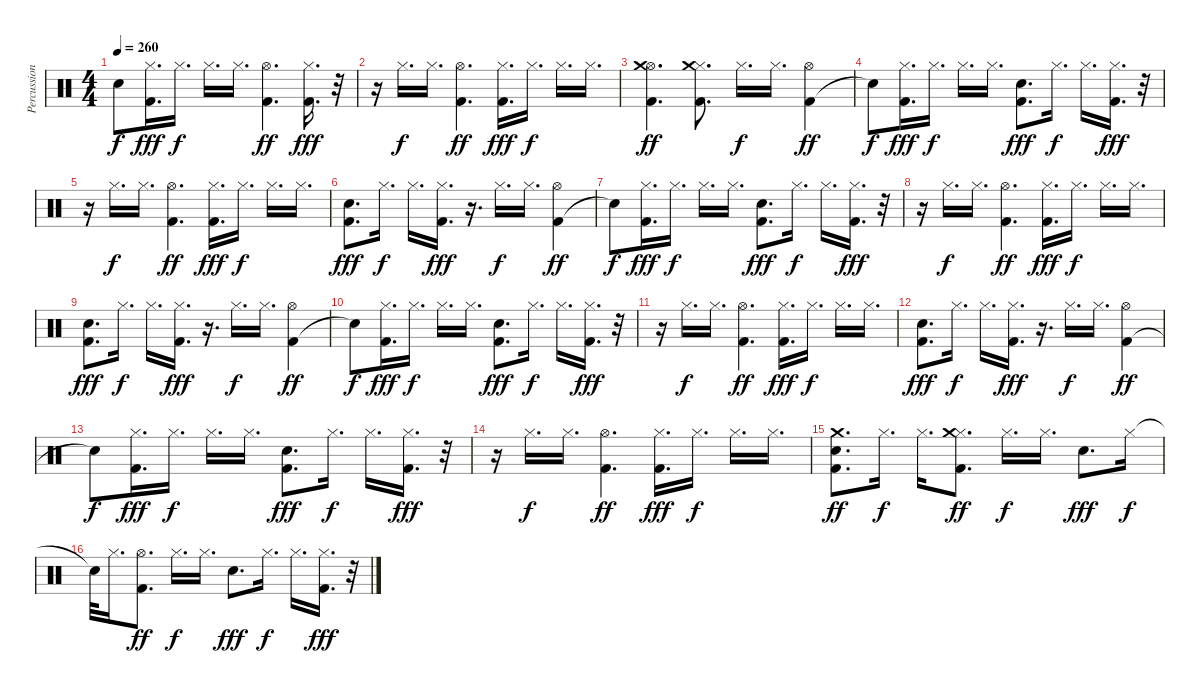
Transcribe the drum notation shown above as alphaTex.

\track ("Percussion" "Percussion") {instrument percussion}
\staff {score}
\articulation defaults
\ts (4 4)
\tempo 260
\clef neutral
\ks c "Snare (hit)"{t}.8{dy f}
("Kick (hit) 2" "Hi-Hat (closed)").16{d dy fff} "Hi-Hat (closed)".16{d dy f} "Hi-Hat (closed)".16{d} "Hi-Hat (closed)".16{d} ("Kick (hit) 2" "Hi-Hat (open)").4{d dy ff} ("Kick (hit) 2" "Hi-Hat (closed)").16{d dy fff} r.32 |
r.16 "Hi-Hat (closed)".16{d dy f} "Hi-Hat (closed)".16{d} ("Kick (hit) 2" "Hi-Hat (open)").4{d dy ff} ("Kick (hit) 2" "Hi-Hat (closed)").16{d dy fff} "Hi-Hat (closed)".16{d dy f} "Hi-Hat (closed)".16{d} "Hi-Hat (closed)".16{d} |
("Kick (hit) 2" "Hi-Hat (open)" "Crash medium (hit)").4{d dy ff} ("Kick (hit) 2" "Hi-Hat (closed)" "Crash medium (hit)").8{d} "Hi-Hat (closed)".16{d dy f} "Hi-Hat (closed)".16{d} ("Kick (hit) 2" "Hi-Hat (open)").4{dy ff} |
"Snare (hit)"{t}.8{dy f} ("Kick (hit) 2" "Hi-Hat (closed)").16{d dy fff} "Hi-Hat (closed)".16{d dy f} "Hi-Hat (closed)".16{d} "Hi-Hat (closed)".16{d} ("Kick (hit) 2" "Electric Snare (hit)").8{d dy fff} "Hi-Hat (closed)".16{d dy f} "Hi-Hat (closed)".16{d} ("Kick (hit) 2" "Hi-Hat (closed)").16{d dy fff} r.32 |
r.16 "Hi-Hat (closed)".16{d dy f} "Hi-Hat (closed)".16{d} ("Kick (hit) 2" "Hi-Hat (open)").4{d dy ff} ("Kick (hit) 2" "Hi-Hat (closed)").16{d dy fff} "Hi-Hat (closed)".16{d dy f} "Hi-Hat (closed)".16{d} "Hi-Hat (closed)".16{d} |
("Kick (hit) 2" "Electric Snare (hit)").8{d dy fff} "Hi-Hat (closed)".16{d dy f} "Hi-Hat (closed)".16{d} ("Kick (hit) 2" "Hi-Hat (closed)").16{d dy fff} r.16{d} "Hi-Hat (closed)".16{d dy f} "Hi-Hat (closed)".16{d} ("Kick (hit) 2" "Hi-Hat (open)").4{dy ff} |
"Snare (hit)"{t}.8{dy f} ("Kick (hit) 2" "Hi-Hat (closed)").16{d dy fff} "Hi-Hat (closed)".16{d dy f} "Hi-Hat (closed)".16{d} "Hi-Hat (closed)".16{d} ("Kick (hit) 2" "Electric Snare (hit)").8{d dy fff} "Hi-Hat (closed)".16{d dy f} "Hi-Hat (closed)".16{d} ("Kick (hit) 2" "Hi-Hat (closed)").16{d dy fff} r.32 |
r.16 "Hi-Hat (closed)".16{d dy f} "Hi-Hat (closed)".16{d} ("Kick (hit) 2" "Hi-Hat (open)").4{d dy ff} ("Kick (hit) 2" "Hi-Hat (closed)").16{d dy fff} "Hi-Hat (closed)".16{d dy f} "Hi-Hat (closed)".16{d} "Hi-Hat (closed)".16{d} |
("Kick (hit) 2" "Electric Snare (hit)").8{d dy fff} "Hi-Hat (closed)".16{d dy f} "Hi-Hat (closed)".16{d} ("Kick (hit) 2" "Hi-Hat (closed)").16{d dy fff} r.16{d} "Hi-Hat (closed)".16{d dy f} "Hi-Hat (closed)".16{d} ("Kick (hit) 2" "Hi-Hat (open)").4{dy ff} |
"Snare (hit)"{t}.8{dy f} ("Kick (hit) 2" "Hi-Hat (closed)").16{d dy fff} "Hi-Hat (closed)".16{d dy f} "Hi-Hat (closed)".16{d} "Hi-Hat (closed)".16{d} ("Kick (hit) 2" "Electric Snare (hit)").8{d dy fff} "Hi-Hat (closed)".16{d dy f} "Hi-Hat (closed)".16{d} ("Kick (hit) 2" "Hi-Hat (closed)").16{d dy fff} r.32 |
r.16 "Hi-Hat (closed)".16{d dy f} "Hi-Hat (closed)".16{d} ("Kick (hit) 2" "Hi-Hat (open)").4{d dy ff} ("Kick (hit) 2" "Hi-Hat (closed)").16{d dy fff} "Hi-Hat (closed)".16{d dy f} "Hi-Hat (closed)".16{d} "Hi-Hat (closed)".16{d} |
("Kick (hit) 2" "Electric Snare (hit)").8{d dy fff} "Hi-Hat (closed)".16{d dy f} "Hi-Hat (closed)".16{d} ("Kick (hit) 2" "Hi-Hat (closed)").16{d dy fff} r.16{d} "Hi-Hat (closed)".16{d dy f} "Hi-Hat (closed)".16{d} ("Kick (hit) 2" "Hi-Hat (open)").4{dy ff} |
"Snare (hit)"{t}.8{dy f} ("Kick (hit) 2" "Hi-Hat (closed)").16{d dy fff} "Hi-Hat (closed)".16{d dy f} "Hi-Hat (closed)".16{d} "Hi-Hat (closed)".16{d} ("Kick (hit) 2" "Electric Snare (hit)").8{d dy fff} "Hi-Hat (closed)".16{d dy f} "Hi-Hat (closed)".16{d} ("Kick (hit) 2" "Hi-Hat (closed)").16{d dy fff} r.32 |
r.16 "Hi-Hat (closed)".16{d dy f} "Hi-Hat (closed)".16{d} ("Kick (hit) 2" "Hi-Hat (open)").4{d dy ff} ("Kick (hit) 2" "Hi-Hat (closed)").16{d dy fff} "Hi-Hat (closed)".16{d dy f} "Hi-Hat (closed)".16{d} "Hi-Hat (closed)".16{d} |
("Kick (hit) 2" "Electric Snare (hit)" "Crash medium (hit)").8{d dy ff} "Hi-Hat (closed)".16{d dy f} "Hi-Hat (closed)".16{d} ("Kick (hit) 2" "Hi-Hat (closed)" "Crash medium (hit)").8{d dy ff} "Hi-Hat (closed)".16{d dy f} "Hi-Hat (closed)".16{d} "Electric Snare (hit)".8{d dy fff} "Hi-Hat (closed)".16{dy f} |
"Snare (hit)"{t}.32 "Hi-Hat (closed)".16{d} ("Kick (hit) 2" "Hi-Hat (open)").8{d dy ff} "Hi-Hat (closed)".16{d dy f} "Hi-Hat (closed)".16{d} "Electric Snare (hit)".8{d dy fff} "Hi-Hat (closed)".16{d dy f} "Hi-Hat (closed)".16{d} ("Kick (hit) 2" "Hi-Hat (closed)").16{d dy fff} r.32
